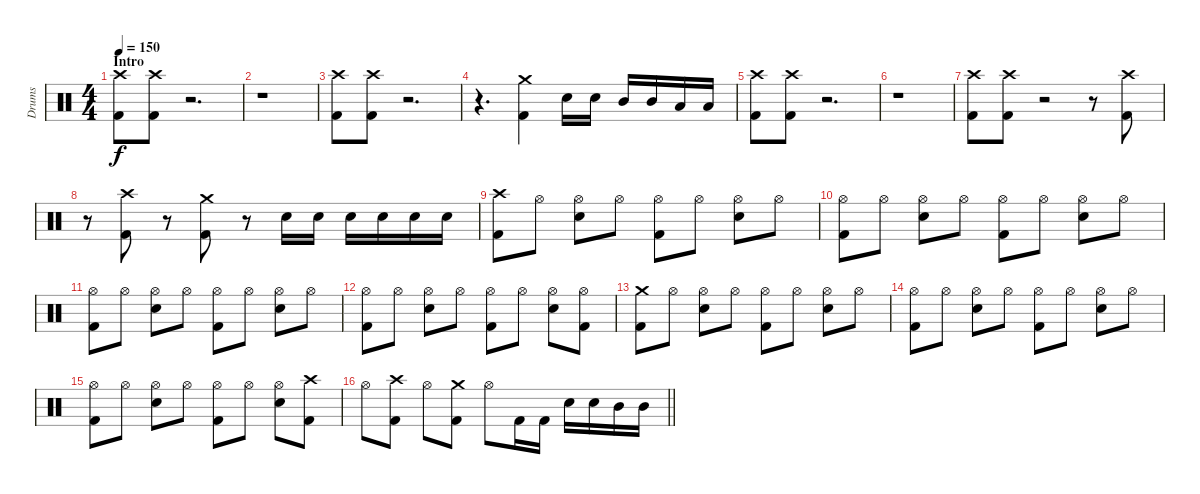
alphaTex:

\track ("Drums" "Drums") {instrument percussion}
\staff {score}
\articulation defaults
\ts (4 4)
\section ("" "Intro")
\tempo 150
\clef neutral
\ks c
("Crash high (hit)" "Kick (hit) 2").8{dy f volume 11} ("Crash high (hit)" "Kick (hit) 2").8 r.2{d volume 0} |
r.1 |
("Crash high (hit)" "Kick (hit) 2").8{volume 11} ("Crash high (hit)" "Kick (hit) 2").8 r.2{d volume 0} |
r.4{d} ("Crash medium (hit)" "Kick (hit) 2").4{volume 11} "Electric Snare (hit)".16 "Electric Snare (hit)".16 "Mid Tom (hit)".16 "Mid Tom (hit)".16 "Low Tom (hit)".16 "Low Tom (hit)".16 |
("Crash high (hit)" "Kick (hit) 2").8{volume 11} ("Crash high (hit)" "Kick (hit) 2").8 r.2{d volume 0} |
r.1 |
("Crash high (hit)" "Kick (hit) 2").8{volume 11} ("Crash high (hit)" "Kick (hit) 2").8 r.2{volume 0} r.8 ("Crash high (hit)" "Kick (hit) 2").8{volume 11} |
r.8{volume 0} ("Crash high (hit)" "Kick (hit) 2").8{volume 11} r.8{volume 0} ("Crash medium (hit)" "Kick (hit) 2").8{volume 11} r.8 "Electric Snare (hit)".16 "Electric Snare (hit)".16 "Electric Snare (hit)".16 "Electric Snare (hit)".16 "Electric Snare (hit)".16 "Electric Snare (hit)".16 |
("Crash high (hit)" "Kick (hit) 2").8 "Hi-Hat (open)".8 ("Hi-Hat (open)" "Electric Snare (hit)").8 "Hi-Hat (open)".8 ("Hi-Hat (open)" "Kick (hit) 2").8 "Hi-Hat (open)".8 ("Hi-Hat (open)" "Electric Snare (hit)").8 "Hi-Hat (open)".8 |
("Hi-Hat (open)" "Kick (hit) 2").8 "Hi-Hat (open)".8 ("Hi-Hat (open)" "Electric Snare (hit)").8 "Hi-Hat (open)".8 ("Hi-Hat (open)" "Kick (hit) 2").8 "Hi-Hat (open)".8 ("Hi-Hat (open)" "Electric Snare (hit)").8 "Hi-Hat (open)".8 |
("Hi-Hat (open)" "Kick (hit) 2").8 "Hi-Hat (open)".8 ("Hi-Hat (open)" "Electric Snare (hit)").8 "Hi-Hat (open)".8 ("Hi-Hat (open)" "Kick (hit) 2").8 "Hi-Hat (open)".8 ("Hi-Hat (open)" "Electric Snare (hit)").8 "Hi-Hat (open)".8 |
("Hi-Hat (open)" "Kick (hit) 2").8 "Hi-Hat (open)".8 ("Hi-Hat (open)" "Electric Snare (hit)").8 "Hi-Hat (open)".8 ("Hi-Hat (open)" "Kick (hit) 2").8 "Hi-Hat (open)".8 ("Hi-Hat (open)" "Electric Snare (hit)").8 ("Hi-Hat (open)" "Kick (hit) 2").8 |
("Crash medium (hit)" "Kick (hit) 2").8 "Hi-Hat (open)".8 ("Hi-Hat (open)" "Electric Snare (hit)").8 "Hi-Hat (open)".8 ("Hi-Hat (open)" "Kick (hit) 2").8 "Hi-Hat (open)".8 ("Hi-Hat (open)" "Electric Snare (hit)").8 "Hi-Hat (open)".8 |
("Hi-Hat (open)" "Kick (hit) 2").8 "Hi-Hat (open)".8 ("Hi-Hat (open)" "Electric Snare (hit)").8 "Hi-Hat (open)".8 ("Hi-Hat (open)" "Kick (hit) 2").8 "Hi-Hat (open)".8 ("Hi-Hat (open)" "Electric Snare (hit)").8 "Hi-Hat (open)".8 |
("Hi-Hat (open)" "Kick (hit) 2").8 "Hi-Hat (open)".8 ("Hi-Hat (open)" "Electric Snare (hit)").8 "Hi-Hat (open)".8 ("Hi-Hat (open)" "Kick (hit) 2").8 "Hi-Hat (open)".8 ("Hi-Hat (open)" "Electric Snare (hit)").8 ("Crash high (hit)" "Kick (hit) 2").8 |
\barLineRight lightlight "Hi-Hat (open)".8
("Crash high (hit)" "Kick (hit) 2").8 "Hi-Hat (open)".8 ("Crash medium (hit)" "Kick (hit) 2").8 "Hi-Hat (open)".8 "Kick (hit) 2".16 "Kick (hit) 2".16 "Electric Snare (hit)".16 "Electric Snare (hit)".16 "Mid Tom (hit)".16 "Mid Tom (hit)".16
